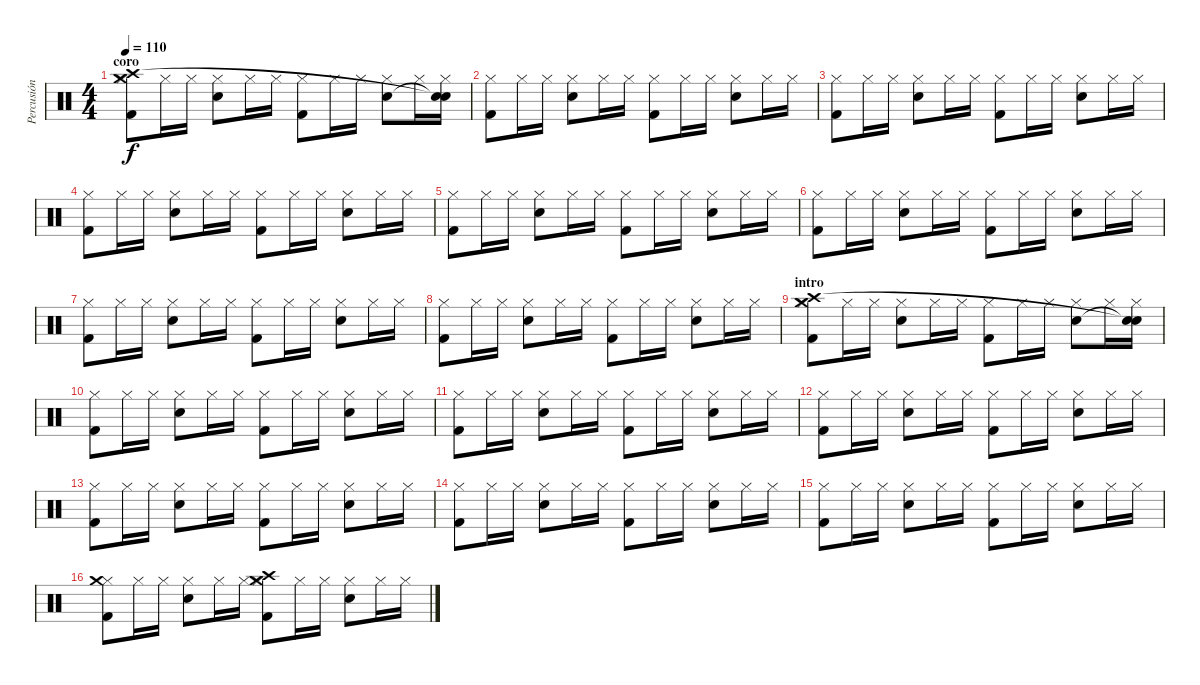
\track ("Percusión" "Percusión") {instrument percussion}
\staff {score}
\articulation defaults
\ts (4 4)
\section ("" "coro")
\tempo 110
\clef neutral
\ks c
("Hi-Hat (closed)" "Kick (hit) 2" "Crash high (hit)" "Crash medium (hit)").8{dy f} "Hi-Hat (closed)".16 "Hi-Hat (closed)".16 ("Hi-Hat (closed)" "Snare (hit) 2").8 "Hi-Hat (closed)".16 "Hi-Hat (closed)".16 ("Hi-Hat (closed)" "Kick (hit) 2").8 "Hi-Hat (closed)".16 "Hi-Hat (closed)".16 ("Hi-Hat (closed)" "Snare (hit) 2").8 "Hi-Hat (closed)".16 ("Hi-Hat (closed)" "Snare (hit)"{t} "Snare (hit)"{t}).16 |
("Hi-Hat (closed)" "Kick (hit) 2").8 "Hi-Hat (closed)".16 "Hi-Hat (closed)".16 ("Hi-Hat (closed)" "Snare (hit) 2").8 "Hi-Hat (closed)".16 "Hi-Hat (closed)".16 ("Hi-Hat (closed)" "Kick (hit) 2").8 "Hi-Hat (closed)".16 "Hi-Hat (closed)".16 ("Hi-Hat (closed)" "Snare (hit) 2").8 "Hi-Hat (closed)".16 "Hi-Hat (closed)".16 |
("Hi-Hat (closed)" "Kick (hit) 2").8 "Hi-Hat (closed)".16 "Hi-Hat (closed)".16 ("Hi-Hat (closed)" "Snare (hit) 2").8 "Hi-Hat (closed)".16 "Hi-Hat (closed)".16 ("Hi-Hat (closed)" "Kick (hit) 2").8 "Hi-Hat (closed)".16 "Hi-Hat (closed)".16 ("Hi-Hat (closed)" "Snare (hit) 2").8 "Hi-Hat (closed)".16 "Hi-Hat (closed)".16 |
("Hi-Hat (closed)" "Kick (hit) 2").8 "Hi-Hat (closed)".16 "Hi-Hat (closed)".16 ("Hi-Hat (closed)" "Snare (hit) 2").8 "Hi-Hat (closed)".16 "Hi-Hat (closed)".16 ("Hi-Hat (closed)" "Kick (hit) 2").8 "Hi-Hat (closed)".16 "Hi-Hat (closed)".16 ("Hi-Hat (closed)" "Snare (hit) 2").8 "Hi-Hat (closed)".16 "Hi-Hat (closed)".16 |
("Hi-Hat (closed)" "Kick (hit) 2").8 "Hi-Hat (closed)".16 "Hi-Hat (closed)".16 ("Hi-Hat (closed)" "Snare (hit) 2").8 "Hi-Hat (closed)".16 "Hi-Hat (closed)".16 ("Hi-Hat (closed)" "Kick (hit) 2").8 "Hi-Hat (closed)".16 "Hi-Hat (closed)".16 ("Hi-Hat (closed)" "Snare (hit) 2").8 "Hi-Hat (closed)".16 "Hi-Hat (closed)".16 |
("Hi-Hat (closed)" "Kick (hit) 2").8 "Hi-Hat (closed)".16 "Hi-Hat (closed)".16 ("Hi-Hat (closed)" "Snare (hit) 2").8 "Hi-Hat (closed)".16 "Hi-Hat (closed)".16 ("Hi-Hat (closed)" "Kick (hit) 2").8 "Hi-Hat (closed)".16 "Hi-Hat (closed)".16 ("Hi-Hat (closed)" "Snare (hit) 2").8 "Hi-Hat (closed)".16 "Hi-Hat (closed)".16 |
("Hi-Hat (closed)" "Kick (hit) 2").8 "Hi-Hat (closed)".16 "Hi-Hat (closed)".16 ("Hi-Hat (closed)" "Snare (hit) 2").8 "Hi-Hat (closed)".16 "Hi-Hat (closed)".16 ("Hi-Hat (closed)" "Kick (hit) 2").8 "Hi-Hat (closed)".16 "Hi-Hat (closed)".16 ("Hi-Hat (closed)" "Snare (hit) 2").8 "Hi-Hat (closed)".16 "Hi-Hat (closed)".16 |
("Hi-Hat (closed)" "Kick (hit) 2").8 "Hi-Hat (closed)".16 "Hi-Hat (closed)".16 ("Hi-Hat (closed)" "Snare (hit) 2").8 "Hi-Hat (closed)".16 "Hi-Hat (closed)".16 ("Hi-Hat (closed)" "Kick (hit) 2").8 "Hi-Hat (closed)".16 "Hi-Hat (closed)".16 ("Hi-Hat (closed)" "Snare (hit) 2").8 "Hi-Hat (closed)".16 "Hi-Hat (closed)".16 |
\section ("" "intro")
("Hi-Hat (closed)" "Kick (hit) 2" "Crash high (hit)" "Crash medium (hit)").8 "Hi-Hat (closed)".16 "Hi-Hat (closed)".16 ("Hi-Hat (closed)" "Snare (hit) 2").8 "Hi-Hat (closed)".16 "Hi-Hat (closed)".16 ("Hi-Hat (closed)" "Kick (hit) 2").8 "Hi-Hat (closed)".16 "Hi-Hat (closed)".16 ("Hi-Hat (closed)" "Snare (hit) 2").8 "Hi-Hat (closed)".16 ("Hi-Hat (closed)" "Snare (hit)"{t} "Snare (hit)"{t}).16 |
("Hi-Hat (closed)" "Kick (hit) 2").8 "Hi-Hat (closed)".16 "Hi-Hat (closed)".16 ("Hi-Hat (closed)" "Snare (hit) 2").8 "Hi-Hat (closed)".16 "Hi-Hat (closed)".16 ("Hi-Hat (closed)" "Kick (hit) 2").8 "Hi-Hat (closed)".16 "Hi-Hat (closed)".16 ("Hi-Hat (closed)" "Snare (hit) 2").8 "Hi-Hat (closed)".16 "Hi-Hat (closed)".16 |
("Hi-Hat (closed)" "Kick (hit) 2").8 "Hi-Hat (closed)".16 "Hi-Hat (closed)".16 ("Hi-Hat (closed)" "Snare (hit) 2").8 "Hi-Hat (closed)".16 "Hi-Hat (closed)".16 ("Hi-Hat (closed)" "Kick (hit) 2").8 "Hi-Hat (closed)".16 "Hi-Hat (closed)".16 ("Hi-Hat (closed)" "Snare (hit) 2").8 "Hi-Hat (closed)".16 "Hi-Hat (closed)".16 |
("Hi-Hat (closed)" "Kick (hit) 2").8 "Hi-Hat (closed)".16 "Hi-Hat (closed)".16 ("Hi-Hat (closed)" "Snare (hit) 2").8 "Hi-Hat (closed)".16 "Hi-Hat (closed)".16 ("Hi-Hat (closed)" "Kick (hit) 2").8 "Hi-Hat (closed)".16 "Hi-Hat (closed)".16 ("Hi-Hat (closed)" "Snare (hit) 2").8 "Hi-Hat (closed)".16 "Hi-Hat (closed)".16 |
("Hi-Hat (closed)" "Kick (hit) 2").8 "Hi-Hat (closed)".16 "Hi-Hat (closed)".16 ("Hi-Hat (closed)" "Snare (hit) 2").8 "Hi-Hat (closed)".16 "Hi-Hat (closed)".16 ("Hi-Hat (closed)" "Kick (hit) 2").8 "Hi-Hat (closed)".16 "Hi-Hat (closed)".16 ("Hi-Hat (closed)" "Snare (hit) 2").8 "Hi-Hat (closed)".16 "Hi-Hat (closed)".16 |
("Hi-Hat (closed)" "Kick (hit) 2").8 "Hi-Hat (closed)".16 "Hi-Hat (closed)".16 ("Hi-Hat (closed)" "Snare (hit) 2").8 "Hi-Hat (closed)".16 "Hi-Hat (closed)".16 ("Hi-Hat (closed)" "Kick (hit) 2").8 "Hi-Hat (closed)".16 "Hi-Hat (closed)".16 ("Hi-Hat (closed)" "Snare (hit) 2").8 "Hi-Hat (closed)".16 "Hi-Hat (closed)".16 |
("Hi-Hat (closed)" "Kick (hit) 2").8 "Hi-Hat (closed)".16 "Hi-Hat (closed)".16 ("Hi-Hat (closed)" "Snare (hit) 2").8 "Hi-Hat (closed)".16 "Hi-Hat (closed)".16 ("Hi-Hat (closed)" "Kick (hit) 2").8 "Hi-Hat (closed)".16 "Hi-Hat (closed)".16 ("Hi-Hat (closed)" "Snare (hit) 2").8 "Hi-Hat (closed)".16 "Hi-Hat (closed)".16 |
("Hi-Hat (closed)" "Kick (hit) 2" "Crash medium (hit)").8 "Hi-Hat (closed)".16 "Hi-Hat (closed)".16 ("Hi-Hat (closed)" "Snare (hit) 2").8 "Hi-Hat (closed)".16 "Hi-Hat (closed)".16 ("Hi-Hat (closed)" "Kick (hit) 2" "Crash high (hit)" "Crash medium (hit)").8 "Hi-Hat (closed)".16 "Hi-Hat (closed)".16 ("Hi-Hat (closed)" "Snare (hit) 2").8 "Hi-Hat (closed)".16 "Hi-Hat (closed)".16
